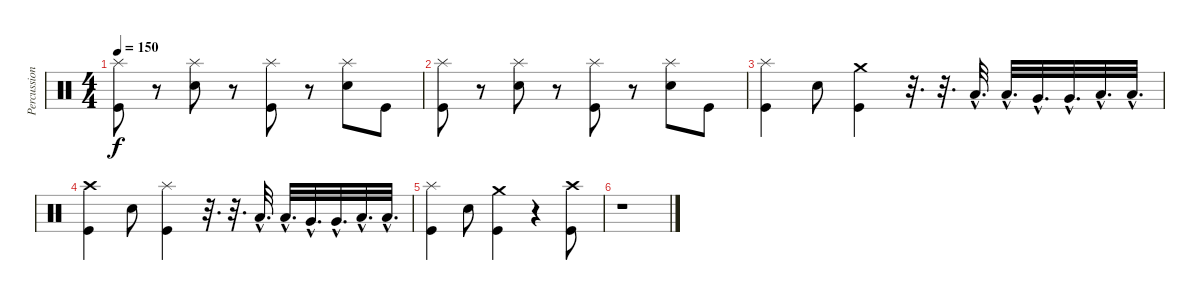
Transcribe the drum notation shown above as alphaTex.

\track ("Percussions" "Percussion") {instrument percussion}
\staff {score}
\articulation defaults
\ts (4 4)
\tempo 150
\clef neutral
\ks c
("Kick (hit)" "Splash (hit)").8{dy f} r.8 ("Electric Snare (hit)" "Splash (hit)").8 r.8 ("Kick (hit)" "Splash (hit)").8 r.8 ("Electric Snare (hit)" "Splash (hit)").8 "Kick (hit)".8 |
("Kick (hit)" "Splash (hit)").8 r.8 ("Electric Snare (hit)" "Splash (hit)").8 r.8 ("Kick (hit)" "Splash (hit)").8 r.8 ("Electric Snare (hit)" "Splash (hit)").8 "Kick (hit)".8 |
("Kick (hit)" "Splash (hit)").4 "Electric Snare (hit)".8 ("Kick (hit)" "Crash medium (hit)").4 r.32{d} r.32{d} "Low Tom (hit)"{hac}.32{d} "Low Tom (hit)"{hac}.32{d} "Very Low Tom (hit)"{hac}.32{d} "Very Low Tom (hit)"{hac}.32{d} "Low Floor Tom (hit)"{hac}.32{d} "Low Floor Tom (hit)"{hac}.32{d} |
("Kick (hit)" "Crash high (hit)").4 "Electric Snare (hit)".8 ("Kick (hit)" "Splash (hit)").4 r.32{d} r.32{d} "Low Tom (hit)"{hac}.32{d} "Low Tom (hit)"{hac}.32{d} "Very Low Tom (hit)"{hac}.32{d} "Very Low Tom (hit)"{hac}.32{d} "Low Floor Tom (hit)"{hac}.32{d} "Low Floor Tom (hit)"{hac}.32{d} |
("Kick (hit)" "Splash (hit)").4 "Electric Snare (hit)".8 ("Kick (hit)" "Crash medium (hit)").4 r.4 ("Kick (hit)" "Crash high (hit)").8 |
r.1
